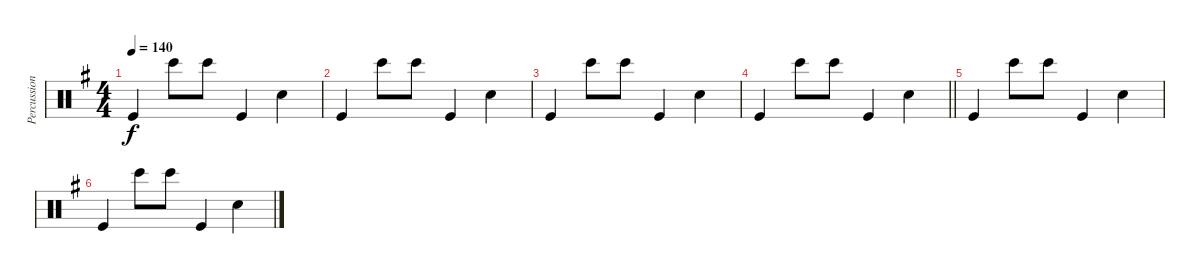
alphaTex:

\track ("Percussion" "Percussion") {instrument percussion}
\staff {score}
\articulation defaults
\ts (4 4)
\tempo 140
\clef neutral
\ks g "Kick (hit)".4{dy f} "Bongo High (hit)".8 "Bongo High (hit)".8 "Kick (hit)".4 "Electric Snare (hit)".4
|
"Kick (hit)".4 "Bongo High (hit)".8 "Bongo High (hit)".8 "Kick (hit)".4 "Electric Snare (hit)".4 |
"Kick (hit)".4 "Bongo High (hit)".8 "Bongo High (hit)".8 "Kick (hit)".4 "Electric Snare (hit)".4 |
\barLineRight lightlight "Kick (hit)".4 "Bongo High (hit)".8 "Bongo High (hit)".8 "Kick (hit)".4 "Electric Snare (hit)".4
|
"Kick (hit)".4 "Bongo High (hit)".8 "Bongo High (hit)".8 "Kick (hit)".4 "Electric Snare (hit)".4 |
"Kick (hit)".4 "Bongo High (hit)".8 "Bongo High (hit)".8 "Kick (hit)".4 "Electric Snare (hit)".4
